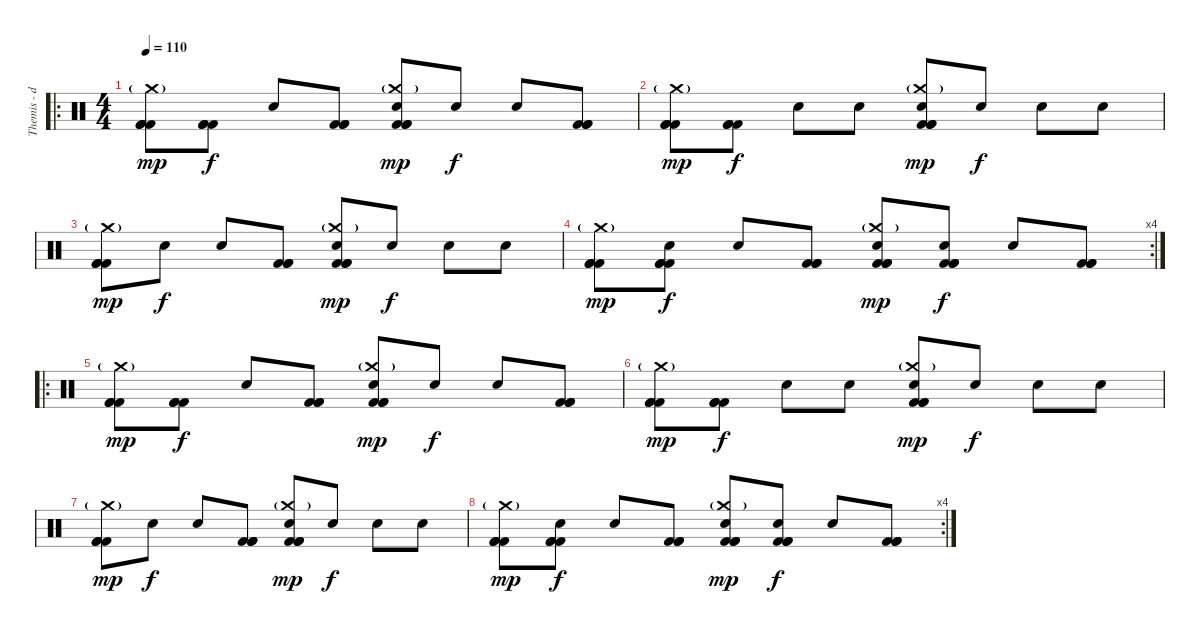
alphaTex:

\track ("Themis - drms" "Themis - d") {instrument percussion}
\staff {score}
\articulation defaults
\ro
\ts (4 4)
\tempo 110
\clef neutral
\ks c
("Kick (hit) 2" "Kick (hit) 2" "Crash medium (hit)"{g} "Kick (hit) 2").8{dy mp} ("Kick (hit) 2" "Kick (hit) 2" "Kick (hit) 2").8{dy f} "Snare (hit)"{x}.8 ("Kick (hit) 2" "Kick (hit) 2" "Kick (hit) 2").8 ("Kick (hit) 2" "Kick (hit) 2" "Crash medium (hit)"{g} "Electric Snare (hit)" "Kick (hit) 2").8{dy mp} "Snare (hit)"{x}.8{dy f} "Snare (hit)"{x}.8 ("Kick (hit) 2" "Kick (hit) 2" "Kick (hit) 2").8 |
("Kick (hit) 2" "Kick (hit) 2" "Crash medium (hit)"{g} "Kick (hit) 2").8{dy mp} ("Kick (hit) 2" "Kick (hit) 2" "Kick (hit) 2").8{dy f} "Snare (hit)"{x}.8 "Snare (hit)"{x}.8 ("Kick (hit) 2" "Kick (hit) 2" "Crash medium (hit)"{g} "Electric Snare (hit)" "Kick (hit) 2").8{dy mp} "Snare (hit)"{x}.8{dy f} "Snare (hit)"{x}.8 "Snare (hit)"{x}.8 |
("Kick (hit) 2" "Kick (hit) 2" "Crash medium (hit)"{g} "Kick (hit) 2").8{dy mp} "Snare (hit)"{x}.8{dy f} "Snare (hit)"{x}.8 ("Kick (hit) 2" "Kick (hit) 2" "Kick (hit) 2").8 ("Kick (hit) 2" "Kick (hit) 2" "Crash medium (hit)"{g} "Electric Snare (hit)" "Kick (hit) 2").8{dy mp} "Snare (hit)"{x}.8{dy f} "Snare (hit)"{x}.8 "Snare (hit)"{x}.8 |
\rc 4
("Kick (hit) 2" "Kick (hit) 2" "Crash medium (hit)"{g} "Kick (hit) 2").8{dy mp} ("Kick (hit) 2" "Kick (hit) 2" "Electric Snare (hit)" "Kick (hit) 2").8{dy f} "Snare (hit)"{x}.8 ("Kick (hit) 2" "Kick (hit) 2" "Kick (hit) 2").8 ("Kick (hit) 2" "Kick (hit) 2" "Crash medium (hit)"{g} "Electric Snare (hit)" "Kick (hit) 2").8{dy mp} ("Kick (hit) 2" "Kick (hit) 2" "Electric Snare (hit)" "Kick (hit) 2").8{dy f} "Snare (hit)"{x}.8 ("Kick (hit) 2" "Kick (hit) 2" "Kick (hit) 2").8 |
\ro
("Kick (hit) 2" "Kick (hit) 2" "Crash medium (hit)"{g} "Kick (hit) 2").8{dy mp volume 0} ("Kick (hit) 2" "Kick (hit) 2" "Kick (hit) 2").8{dy f} "Snare (hit)"{x}.8 ("Kick (hit) 2" "Kick (hit) 2" "Kick (hit) 2").8 ("Kick (hit) 2" "Kick (hit) 2" "Crash medium (hit)"{g} "Electric Snare (hit)" "Kick (hit) 2").8{dy mp} "Snare (hit)"{x}.8{dy f} "Snare (hit)"{x}.8 ("Kick (hit) 2" "Kick (hit) 2" "Kick (hit) 2").8 |
("Kick (hit) 2" "Kick (hit) 2" "Crash medium (hit)"{g} "Kick (hit) 2").8{dy mp} ("Kick (hit) 2" "Kick (hit) 2" "Kick (hit) 2").8{dy f} "Snare (hit)"{x}.8 "Snare (hit)"{x}.8 ("Kick (hit) 2" "Kick (hit) 2" "Crash medium (hit)"{g} "Electric Snare (hit)" "Kick (hit) 2").8{dy mp} "Snare (hit)"{x}.8{dy f} "Snare (hit)"{x}.8 "Snare (hit)"{x}.8 |
("Kick (hit) 2" "Kick (hit) 2" "Crash medium (hit)"{g} "Kick (hit) 2").8{dy mp} "Snare (hit)"{x}.8{dy f} "Snare (hit)"{x}.8 ("Kick (hit) 2" "Kick (hit) 2" "Kick (hit) 2").8 ("Kick (hit) 2" "Kick (hit) 2" "Crash medium (hit)"{g} "Electric Snare (hit)" "Kick (hit) 2").8{dy mp} "Snare (hit)"{x}.8{dy f} "Snare (hit)"{x}.8 "Snare (hit)"{x}.8 |
\rc 4
("Kick (hit) 2" "Kick (hit) 2" "Crash medium (hit)"{g} "Kick (hit) 2").8{dy mp} ("Kick (hit) 2" "Kick (hit) 2" "Electric Snare (hit)" "Kick (hit) 2").8{dy f} "Snare (hit)"{x}.8 ("Kick (hit) 2" "Kick (hit) 2" "Kick (hit) 2").8 ("Kick (hit) 2" "Kick (hit) 2" "Crash medium (hit)"{g} "Electric Snare (hit)" "Kick (hit) 2").8{dy mp} ("Kick (hit) 2" "Kick (hit) 2" "Electric Snare (hit)" "Kick (hit) 2").8{dy f} "Snare (hit)"{x}.8 ("Kick (hit) 2" "Kick (hit) 2" "Kick (hit) 2").8
